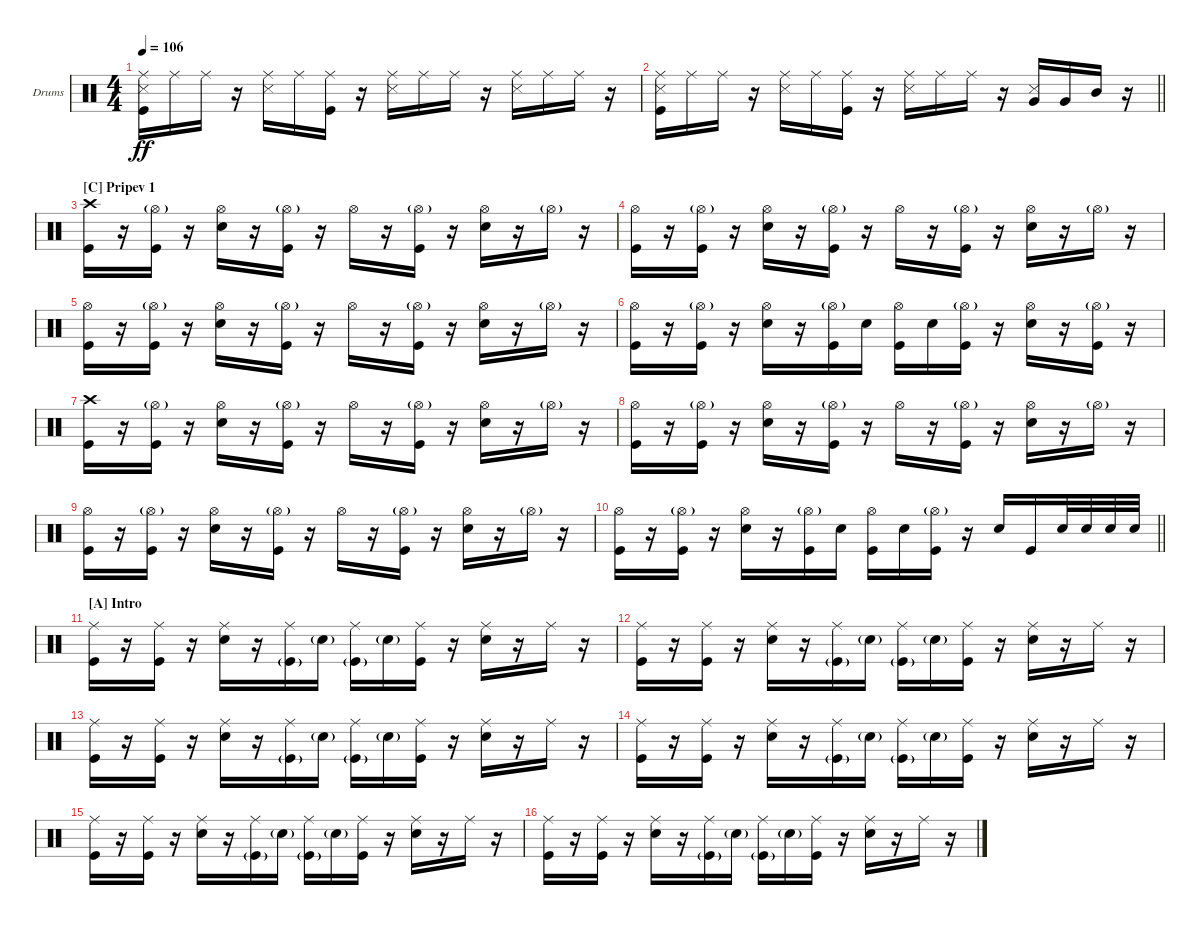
\bracketExtendMode groupsimilarinstruments
\firstSystemTrackNameOrientation horizontal
\otherSystemsTrackNameOrientation horizontal
\track ("Udarnyye | A. Storozhuk" "Drums") {instrument percussion}
\staff {score}
\articulation defaults
\ts (4 4)
\tempo 106
\clef neutral
\ks c
("Ride (middle)" "Kick (hit)" "Snare (side stick) 3").16{dy ff} "Ride (middle)".16 "Ride (middle)".16 r.16 ("Ride (middle)" "Snare (side stick) 3").16 "Ride (middle)".16 ("Ride (middle)" "Kick (hit)").16 r.16 ("Ride (middle)" "Snare (side stick) 3").16 "Ride (middle)".16 "Ride (middle)".16 r.16 ("Ride (middle)" "Snare (side stick) 3").16 "Ride (middle)".16 "Ride (middle)".16 r.16 |
\barLineRight lightlight
("Ride (middle)" "Kick (hit)" "Snare (side stick) 3").16 "Ride (middle)".16 "Ride (middle)".16 r.16 ("Ride (middle)" "Snare (side stick) 3").16 "Ride (middle)".16 ("Ride (middle)" "Kick (hit)").16 r.16 ("Ride (middle)" "Snare (side stick) 3").16 "Ride (middle)".16 "Ride (middle)".16 r.16 ("Very Low Tom (hit)" "Snare (side stick) 3").16 "Very Low Tom (hit)".16 "Mid Tom (hit)".16 r.16 |
\section ("C" "Pripev 1")
("Crash high (hit)" "Kick (hit)").16 r.16 ("Hi-Hat (open)"{g} "Kick (hit)").16 r.16 ("Hi-Hat (open)" "Snare (hit) 2").16 r.16 ("Hi-Hat (open)"{g} "Kick (hit)").16 r.16 "Hi-Hat (open)".16 r.16 ("Hi-Hat (open)"{g} "Kick (hit)").16 r.16 ("Hi-Hat (open)" "Snare (hit) 2").16 r.16 "Hi-Hat (open)"{g}.16 r.16 |
("Hi-Hat (open)" "Kick (hit)").16 r.16 ("Hi-Hat (open)"{g} "Kick (hit)").16 r.16 ("Hi-Hat (open)" "Snare (hit) 2").16 r.16 ("Hi-Hat (open)"{g} "Kick (hit)").16 r.16 "Hi-Hat (open)".16 r.16 ("Hi-Hat (open)"{g} "Kick (hit)").16 r.16 ("Hi-Hat (open)" "Snare (hit) 2").16 r.16 "Hi-Hat (open)"{g}.16 r.16 |
("Hi-Hat (open)" "Kick (hit)").16 r.16 ("Hi-Hat (open)"{g} "Kick (hit)").16 r.16 ("Hi-Hat (open)" "Snare (hit) 2").16 r.16 ("Hi-Hat (open)"{g} "Kick (hit)").16 r.16 "Hi-Hat (open)".16 r.16 ("Hi-Hat (open)"{g} "Kick (hit)").16 r.16 ("Hi-Hat (open)" "Snare (hit) 2").16 r.16 "Hi-Hat (open)"{g}.16 r.16 |
("Hi-Hat (open)" "Kick (hit)").16 r.16 ("Hi-Hat (open)"{g} "Kick (hit)").16 r.16 ("Hi-Hat (open)" "Snare (hit) 2").16 r.16 ("Hi-Hat (open)"{g} "Kick (hit)").16 "Snare (hit) 2".16 ("Hi-Hat (open)" "Kick (hit)").16 "Snare (hit) 2".16 ("Hi-Hat (open)"{g} "Kick (hit)").16 r.16 ("Hi-Hat (open)" "Snare (hit) 2").16 r.16 ("Hi-Hat (open)"{g} "Kick (hit)").16 r.16 |
("Crash high (hit)" "Kick (hit)").16 r.16 ("Hi-Hat (open)"{g} "Kick (hit)").16 r.16 ("Hi-Hat (open)" "Snare (hit) 2").16 r.16 ("Hi-Hat (open)"{g} "Kick (hit)").16 r.16 "Hi-Hat (open)".16 r.16 ("Hi-Hat (open)"{g} "Kick (hit)").16 r.16 ("Hi-Hat (open)" "Snare (hit) 2").16 r.16 "Hi-Hat (open)"{g}.16 r.16 |
("Hi-Hat (open)" "Kick (hit)").16 r.16 ("Hi-Hat (open)"{g} "Kick (hit)").16 r.16 ("Hi-Hat (open)" "Snare (hit) 2").16 r.16 ("Hi-Hat (open)"{g} "Kick (hit)").16 r.16 "Hi-Hat (open)".16 r.16 ("Hi-Hat (open)"{g} "Kick (hit)").16 r.16 ("Hi-Hat (open)" "Snare (hit) 2").16 r.16 "Hi-Hat (open)"{g}.16 r.16 |
("Hi-Hat (open)" "Kick (hit)").16 r.16 ("Hi-Hat (open)"{g} "Kick (hit)").16 r.16 ("Hi-Hat (open)" "Snare (hit) 2").16 r.16 ("Hi-Hat (open)"{g} "Kick (hit)").16 r.16 "Hi-Hat (open)".16 r.16 ("Hi-Hat (open)"{g} "Kick (hit)").16 r.16 ("Hi-Hat (open)" "Snare (hit) 2").16 r.16 "Hi-Hat (open)"{g}.16 r.16 |
\barLineRight lightlight
("Hi-Hat (open)" "Kick (hit)").16 r.16 ("Hi-Hat (open)"{g} "Kick (hit)").16 r.16 ("Hi-Hat (open)" "Snare (hit) 2").16 r.16 ("Hi-Hat (open)"{g} "Kick (hit)").16 "Snare (hit) 2".16 ("Hi-Hat (open)" "Kick (hit)").16 "Snare (hit) 2".16 ("Hi-Hat (open)"{g} "Kick (hit)").16 r.16 "Snare (hit) 2".16 "Kick (hit)".16 "Snare (hit) 2".32 "Snare (hit) 2".32 "Snare (hit) 2".32 "Snare (hit) 2".32 |
\section ("A" "Intro")
("Ride (middle)" "Kick (hit)").16 r.16 ("Ride (middle)" "Kick (hit)").16 r.16 ("Ride (middle)" "Snare (hit) 2").16 r.16 ("Ride (middle)" "Kick (hit)"{g}).16 "Snare (hit) 2"{g}.16 ("Ride (middle)" "Kick (hit)"{g}).16 "Snare (hit) 2"{g}.16 ("Ride (middle)" "Kick (hit)").16 r.16 ("Ride (middle)" "Snare (hit) 2").16 r.16 "Ride (middle)".16 r.16 |
("Ride (middle)" "Kick (hit)").16 r.16 ("Ride (middle)" "Kick (hit)").16 r.16 ("Ride (middle)" "Snare (hit) 2").16 r.16 ("Ride (middle)" "Kick (hit)"{g}).16 "Snare (hit) 2"{g}.16 ("Ride (middle)" "Kick (hit)"{g}).16 "Snare (hit) 2"{g}.16 ("Ride (middle)" "Kick (hit)").16 r.16 ("Ride (middle)" "Snare (hit) 2").16 r.16 "Ride (middle)".16 r.16 |
("Ride (middle)" "Kick (hit)").16 r.16 ("Ride (middle)" "Kick (hit)").16 r.16 ("Ride (middle)" "Snare (hit) 2").16 r.16 ("Ride (middle)" "Kick (hit)"{g}).16 "Snare (hit) 2"{g}.16 ("Ride (middle)" "Kick (hit)"{g}).16 "Snare (hit) 2"{g}.16 ("Ride (middle)" "Kick (hit)").16 r.16 ("Ride (middle)" "Snare (hit) 2").16 r.16 "Ride (middle)".16 r.16 |
("Ride (middle)" "Kick (hit)").16 r.16 ("Ride (middle)" "Kick (hit)").16 r.16 ("Ride (middle)" "Snare (hit) 2").16 r.16 ("Ride (middle)" "Kick (hit)"{g}).16 "Snare (hit) 2"{g}.16 ("Ride (middle)" "Kick (hit)"{g}).16 "Snare (hit) 2"{g}.16 ("Ride (middle)" "Kick (hit)").16 r.16 ("Ride (middle)" "Snare (hit) 2").16 r.16 "Ride (middle)".16 r.16 |
("Ride (middle)" "Kick (hit)").16 r.16 ("Ride (middle)" "Kick (hit)").16 r.16 ("Ride (middle)" "Snare (hit) 2").16 r.16 ("Ride (middle)" "Kick (hit)"{g}).16 "Snare (hit) 2"{g}.16 ("Ride (middle)" "Kick (hit)"{g}).16 "Snare (hit) 2"{g}.16 ("Ride (middle)" "Kick (hit)").16 r.16 ("Ride (middle)" "Snare (hit) 2").16 r.16 "Ride (middle)".16 r.16 |
("Ride (middle)" "Kick (hit)").16 r.16 ("Ride (middle)" "Kick (hit)").16 r.16 ("Ride (middle)" "Snare (hit) 2").16 r.16 ("Ride (middle)" "Kick (hit)"{g}).16 "Snare (hit) 2"{g}.16 ("Ride (middle)" "Kick (hit)"{g}).16 "Snare (hit) 2"{g}.16 ("Ride (middle)" "Kick (hit)").16 r.16 ("Ride (middle)" "Snare (hit) 2").16 r.16 "Ride (middle)".16 r.16
